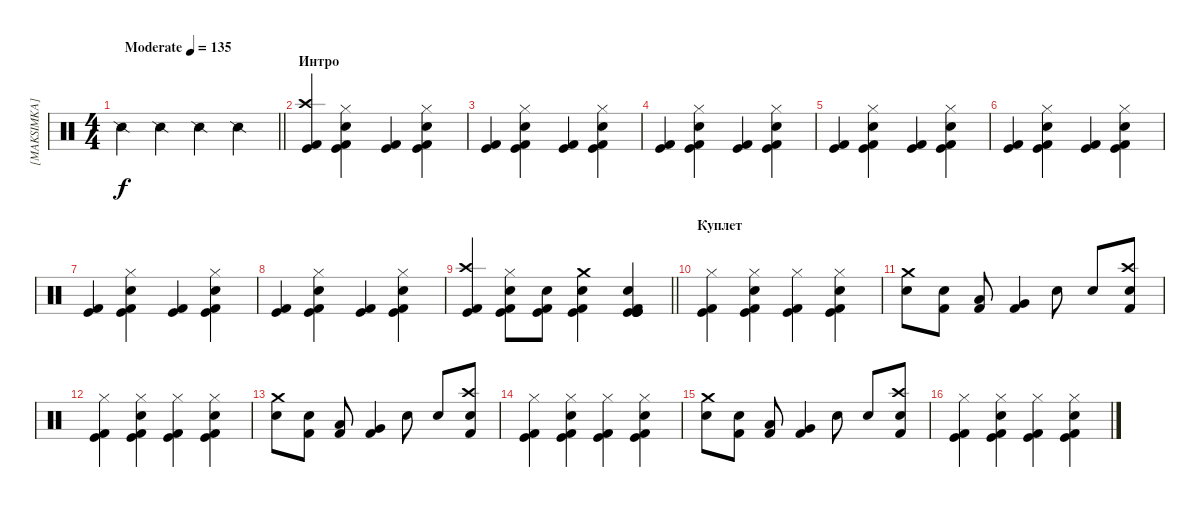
\track ("[MAKSIMKA]" "[MAKSIMKA]") {instrument percussion}
\staff {score}
\articulation defaults
\ts (4 4)
\tempo (135 "Moderate")
\clef neutral
\barLineRight lightlight
\ks c "Snare (side stick) 2".4{dy f} "Snare (side stick) 2".4 "Snare (side stick) 2".4 "Snare (side stick) 2".4
|
\section ("" "Интро")
("Kick (hit) 2" "Crash high (hit)" "Kick (hit)").4 ("Kick (hit) 2" "Snare (hit) 2" "Hi-Hat (closed)" "Kick (hit)").4 ("Kick (hit) 2" "Kick (hit)").4 ("Kick (hit) 2" "Snare (hit) 2" "Hi-Hat (closed)" "Kick (hit)").4 |
("Kick (hit) 2" "Kick (hit)").4 ("Kick (hit) 2" "Snare (hit) 2" "Hi-Hat (closed)" "Kick (hit)").4 ("Kick (hit) 2" "Kick (hit)").4 ("Kick (hit) 2" "Snare (hit) 2" "Hi-Hat (closed)" "Kick (hit)").4 |
("Kick (hit) 2" "Kick (hit)").4 ("Kick (hit) 2" "Snare (hit) 2" "Hi-Hat (closed)" "Kick (hit)").4 ("Kick (hit) 2" "Kick (hit)").4 ("Kick (hit) 2" "Snare (hit) 2" "Hi-Hat (closed)" "Kick (hit)").4 |
("Kick (hit) 2" "Kick (hit)").4 ("Kick (hit) 2" "Snare (hit) 2" "Hi-Hat (closed)" "Kick (hit)").4 ("Kick (hit) 2" "Kick (hit)").4 ("Kick (hit) 2" "Snare (hit) 2" "Hi-Hat (closed)" "Kick (hit)").4 |
("Kick (hit) 2" "Kick (hit)").4 ("Kick (hit) 2" "Snare (hit) 2" "Hi-Hat (closed)" "Kick (hit)").4 ("Kick (hit) 2" "Kick (hit)").4 ("Kick (hit) 2" "Snare (hit) 2" "Hi-Hat (closed)" "Kick (hit)").4 |
("Kick (hit) 2" "Kick (hit)").4 ("Kick (hit) 2" "Snare (hit) 2" "Hi-Hat (closed)" "Kick (hit)").4 ("Kick (hit) 2" "Kick (hit)").4 ("Kick (hit) 2" "Snare (hit) 2" "Hi-Hat (closed)" "Kick (hit)").4 |
("Kick (hit) 2" "Kick (hit)").4 ("Kick (hit) 2" "Snare (hit) 2" "Hi-Hat (closed)" "Kick (hit)").4 ("Kick (hit) 2" "Kick (hit)").4 ("Kick (hit) 2" "Snare (hit) 2" "Hi-Hat (closed)" "Kick (hit)").4 |
\barLineRight lightlight
("Kick (hit) 2" "Crash high (hit)" "Kick (hit)").4 ("Kick (hit) 2" "Snare (hit) 2" "Hi-Hat (closed)" "Kick (hit)").8 ("Kick (hit) 2" "Snare (hit) 2" "Kick (hit)").8 ("Kick (hit) 2" "Snare (hit) 2" "Crash medium (hit)" "Kick (hit)").4 ("Kick (hit) 2" "Snare (hit) 2" "Kick (hit)" "Kick (hit)" "Kick (hit)" "Kick (hit)").4 |
\section ("" "Куплет")
("Kick (hit) 2" "Hi-Hat (closed)" "Kick (hit)").4 ("Kick (hit) 2" "Snare (hit) 2" "Hi-Hat (closed)" "Kick (hit)").4 ("Kick (hit) 2" "Hi-Hat (closed)" "Kick (hit)").4 ("Kick (hit) 2" "Snare (hit) 2" "Hi-Hat (closed)" "Kick (hit)").4 |
("Crash medium (hit)" "Snare (hit) 2").8 ("Kick (hit) 2" "Snare (hit) 2").8 ("Kick (hit) 2" "Low Tom (hit)").8 ("Kick (hit) 2" "Very Low Tom (hit)").4 "Snare (hit) 2".8 "Snare (hit) 2".8 ("Kick (hit) 2" "Crash high (hit)" "Snare (hit) 2").8 |
("Kick (hit) 2" "Hi-Hat (closed)" "Kick (hit)").4 ("Kick (hit) 2" "Snare (hit) 2" "Hi-Hat (closed)" "Kick (hit)").4 ("Kick (hit) 2" "Hi-Hat (closed)" "Kick (hit)").4 ("Kick (hit) 2" "Snare (hit) 2" "Hi-Hat (closed)" "Kick (hit)").4 |
("Crash medium (hit)" "Snare (hit) 2").8 ("Kick (hit) 2" "Snare (hit) 2").8 ("Kick (hit) 2" "Low Tom (hit)").8 ("Kick (hit) 2" "Very Low Tom (hit)").4 "Snare (hit) 2".8 "Snare (hit) 2".8 ("Kick (hit) 2" "Crash high (hit)" "Snare (hit) 2").8 |
("Kick (hit) 2" "Hi-Hat (closed)" "Kick (hit)").4 ("Kick (hit) 2" "Snare (hit) 2" "Hi-Hat (closed)" "Kick (hit)").4 ("Kick (hit) 2" "Hi-Hat (closed)" "Kick (hit)").4 ("Kick (hit) 2" "Snare (hit) 2" "Hi-Hat (closed)" "Kick (hit)").4 |
("Crash medium (hit)" "Snare (hit) 2").8 ("Kick (hit) 2" "Snare (hit) 2").8 ("Kick (hit) 2" "Low Tom (hit)").8 ("Kick (hit) 2" "Very Low Tom (hit)").4 "Snare (hit) 2".8 "Snare (hit) 2".8 ("Kick (hit) 2" "Crash high (hit)" "Snare (hit) 2").8 |
("Kick (hit) 2" "Hi-Hat (closed)" "Kick (hit)").4 ("Kick (hit) 2" "Snare (hit) 2" "Hi-Hat (closed)" "Kick (hit)").4 ("Kick (hit) 2" "Hi-Hat (closed)" "Kick (hit)").4 ("Kick (hit) 2" "Snare (hit) 2" "Hi-Hat (closed)" "Kick (hit)").4
